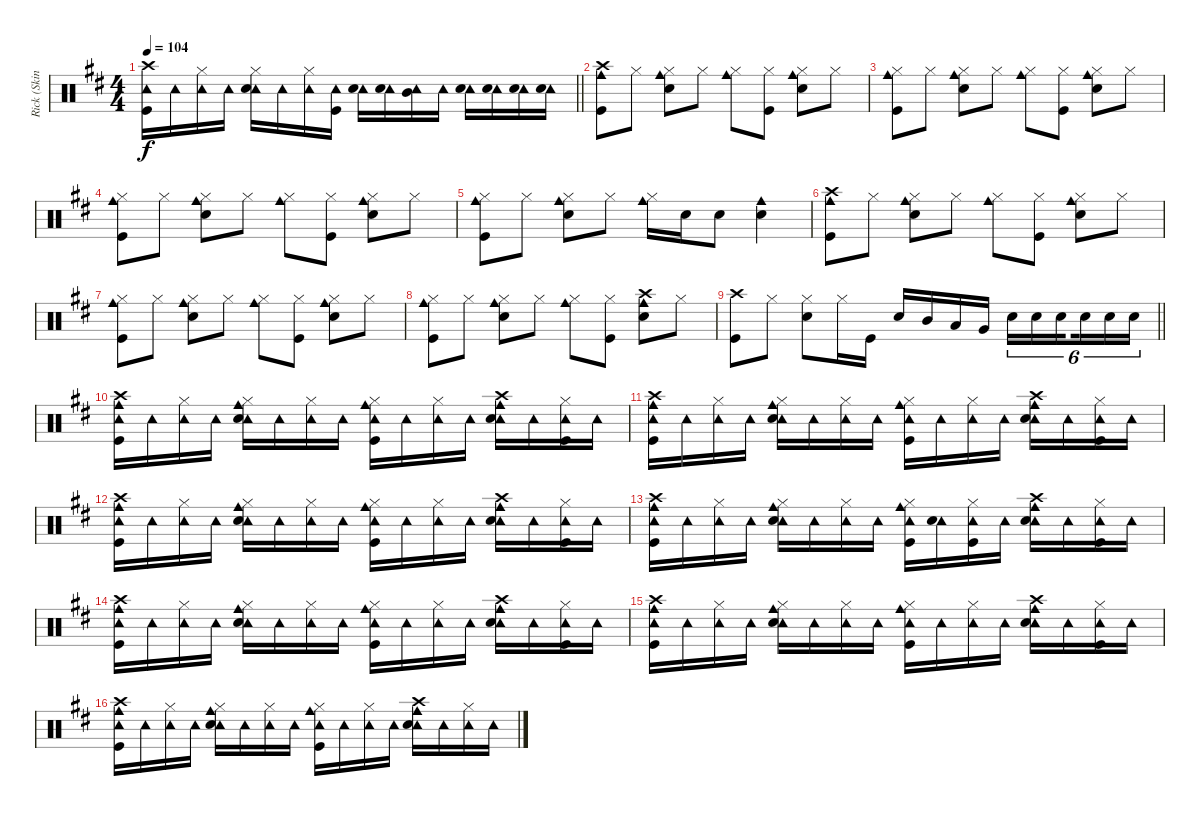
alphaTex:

\track ("Rick (Skins)" "Rick (Skin") {instrument percussion}
\staff {score}
\articulation defaults
\ts (4 4)
\tempo 104
\clef neutral
\barLineRight lightlight
\ks d
("Tambourine (hit)" "Crash high (hit)" "Kick (hit)").16{dy f} "Tambourine (hit)".16 ("Tambourine (hit)" "Hi-Hat (closed)").16 "Tambourine (hit)".16 ("Tambourine (hit)" "Hi-Hat (closed)" "Snare (hit) 2").16 "Tambourine (hit)".16 ("Tambourine (hit)" "Hi-Hat (closed)").16 ("Tambourine (hit)" "Kick (hit)").16 ("Tambourine (hit)" "Snare (hit) 2").16 ("Tambourine (hit)" "Snare (hit) 2").16 ("Tambourine (hit)" "Mid Tom (hit)").16 "Tambourine (hit)".16 ("Tambourine (hit)" "Snare (hit) 2").16 ("Tambourine (hit)" "Snare (hit) 2").16 ("Tambourine (hit)" "Snare (hit) 2").16 ("Tambourine (hit)" "Snare (hit) 2").16 |
("Cowbell medium (hit)" "Crash high (hit)" "Kick (hit)").8 "Hi-Hat (closed)".8 ("Cowbell medium (hit)" "Hi-Hat (closed)" "Snare (hit) 2").8 "Hi-Hat (closed)".8 ("Cowbell medium (hit)" "Hi-Hat (closed)").8 ("Hi-Hat (closed)" "Kick (hit)").8 ("Cowbell medium (hit)" "Hi-Hat (closed)" "Snare (hit) 2").8 "Hi-Hat (closed)".8 |
("Cowbell medium (hit)" "Hi-Hat (closed)" "Kick (hit)").8 "Hi-Hat (closed)".8 ("Cowbell medium (hit)" "Hi-Hat (closed)" "Snare (hit) 2").8 "Hi-Hat (closed)".8 ("Cowbell medium (hit)" "Hi-Hat (closed)").8 ("Hi-Hat (closed)" "Kick (hit)").8 ("Cowbell medium (hit)" "Hi-Hat (closed)" "Snare (hit) 2").8 "Hi-Hat (closed)".8 |
("Cowbell medium (hit)" "Hi-Hat (closed)" "Kick (hit)").8 "Hi-Hat (closed)".8 ("Cowbell medium (hit)" "Hi-Hat (closed)" "Snare (hit) 2").8 "Hi-Hat (closed)".8 ("Cowbell medium (hit)" "Hi-Hat (closed)").8 ("Hi-Hat (closed)" "Kick (hit)").8 ("Cowbell medium (hit)" "Hi-Hat (closed)" "Snare (hit) 2").8 "Hi-Hat (closed)".8 |
("Cowbell medium (hit)" "Hi-Hat (closed)" "Kick (hit)").8 "Hi-Hat (closed)".8 ("Cowbell medium (hit)" "Hi-Hat (closed)" "Snare (hit) 2").8 "Hi-Hat (closed)".8 ("Cowbell medium (hit)" "Hi-Hat (closed)").16 "Snare (hit) 2".16 "Snare (hit) 2".8 ("Cowbell medium (hit)" "Snare (hit) 2").4 |
("Cowbell medium (hit)" "Crash high (hit)" "Kick (hit)").8 "Hi-Hat (closed)".8 ("Cowbell medium (hit)" "Hi-Hat (closed)" "Snare (hit) 2").8 "Hi-Hat (closed)".8 ("Cowbell medium (hit)" "Hi-Hat (closed)").8 ("Hi-Hat (closed)" "Kick (hit)").8 ("Cowbell medium (hit)" "Hi-Hat (closed)" "Snare (hit) 2").8 "Hi-Hat (closed)".8 |
("Cowbell medium (hit)" "Hi-Hat (closed)" "Kick (hit)").8 "Hi-Hat (closed)".8 ("Cowbell medium (hit)" "Hi-Hat (closed)" "Snare (hit) 2").8 "Hi-Hat (closed)".8 ("Cowbell medium (hit)" "Hi-Hat (closed)").8 ("Hi-Hat (closed)" "Kick (hit)").8 ("Cowbell medium (hit)" "Hi-Hat (closed)" "Snare (hit) 2").8 "Hi-Hat (closed)".8 |
("Cowbell medium (hit)" "Hi-Hat (closed)" "Kick (hit)").8 "Hi-Hat (closed)".8 ("Cowbell medium (hit)" "Hi-Hat (closed)" "Snare (hit) 2").8 "Hi-Hat (closed)".8 ("Cowbell medium (hit)" "Hi-Hat (closed)").8 ("Hi-Hat (closed)" "Kick (hit)").8 ("Cowbell medium (hit)" "Crash high (hit)" "Snare (hit) 2").8 "Hi-Hat (closed)".8 |
\barLineRight lightlight
("Crash high (hit)" "Kick (hit)").8 "Hi-Hat (closed)".8 ("Hi-Hat (closed)" "Snare (hit) 2").8 "Hi-Hat (closed)".16 "Kick (hit)".16 "Snare (hit) 2".16 "Mid Tom (hit)".16 "Low Tom (hit)".16 "Very Low Tom (hit)".16 "Snare (hit) 2".16{tu (6 4)} "Snare (hit) 2".16{tu (6 4)} "Snare (hit) 2".16{tu (6 4) beam splitsecondary} "Snare (hit) 2".16{tu (6 4)} "Snare (hit) 2".16{tu (6 4)} "Snare (hit) 2".16{tu (6 4)} |
("Cowbell medium (hit)" "Tambourine (hit)" "Crash high (hit)" "Kick (hit)").16 "Tambourine (hit)".16 ("Tambourine (hit)" "Hi-Hat (closed)").16 "Tambourine (hit)".16 ("Cowbell medium (hit)" "Tambourine (hit)" "Hi-Hat (closed)" "Snare (hit) 2").16 "Tambourine (hit)".16 ("Tambourine (hit)" "Hi-Hat (closed)").16 "Tambourine (hit)".16 ("Cowbell medium (hit)" "Tambourine (hit)" "Hi-Hat (closed)" "Kick (hit)").16 "Tambourine (hit)".16 ("Tambourine (hit)" "Hi-Hat (closed)").16 "Tambourine (hit)".16 ("Cowbell medium (hit)" "Tambourine (hit)" "Crash high (hit)" "Snare (hit) 2").16 "Tambourine (hit)".16 ("Tambourine (hit)" "Hi-Hat (closed)" "Kick (hit)").16 "Tambourine (hit)".16 |
("Cowbell medium (hit)" "Tambourine (hit)" "Crash high (hit)" "Kick (hit)").16 "Tambourine (hit)".16 ("Tambourine (hit)" "Hi-Hat (closed)").16 "Tambourine (hit)".16 ("Cowbell medium (hit)" "Tambourine (hit)" "Hi-Hat (closed)" "Snare (hit) 2").16 "Tambourine (hit)".16 ("Tambourine (hit)" "Hi-Hat (closed)").16 "Tambourine (hit)".16 ("Cowbell medium (hit)" "Tambourine (hit)" "Hi-Hat (closed)" "Kick (hit)").16 "Tambourine (hit)".16 ("Tambourine (hit)" "Hi-Hat (closed)").16 "Tambourine (hit)".16 ("Cowbell medium (hit)" "Tambourine (hit)" "Crash high (hit)" "Snare (hit) 2").16 "Tambourine (hit)".16 ("Tambourine (hit)" "Hi-Hat (closed)" "Kick (hit)").16 "Tambourine (hit)".16 |
("Cowbell medium (hit)" "Tambourine (hit)" "Crash high (hit)" "Kick (hit)").16 "Tambourine (hit)".16 ("Tambourine (hit)" "Hi-Hat (closed)").16 "Tambourine (hit)".16 ("Cowbell medium (hit)" "Tambourine (hit)" "Hi-Hat (closed)" "Snare (hit) 2").16 "Tambourine (hit)".16 ("Tambourine (hit)" "Hi-Hat (closed)").16 "Tambourine (hit)".16 ("Cowbell medium (hit)" "Tambourine (hit)" "Hi-Hat (closed)" "Kick (hit)").16 "Tambourine (hit)".16 ("Tambourine (hit)" "Hi-Hat (closed)").16 "Tambourine (hit)".16 ("Cowbell medium (hit)" "Tambourine (hit)" "Crash high (hit)" "Snare (hit) 2").16 "Tambourine (hit)".16 ("Tambourine (hit)" "Hi-Hat (closed)" "Kick (hit)").16 "Tambourine (hit)".16 |
("Cowbell medium (hit)" "Tambourine (hit)" "Crash high (hit)" "Kick (hit)").16 "Tambourine (hit)".16 ("Tambourine (hit)" "Hi-Hat (closed)").16 "Tambourine (hit)".16 ("Cowbell medium (hit)" "Tambourine (hit)" "Hi-Hat (closed)" "Snare (hit) 2").16 "Tambourine (hit)".16 ("Tambourine (hit)" "Hi-Hat (closed)").16 "Tambourine (hit)".16 ("Cowbell medium (hit)" "Tambourine (hit)" "Hi-Hat (closed)" "Kick (hit)").16 ("Tambourine (hit)" "Snare (hit) 2").16 ("Tambourine (hit)" "Hi-Hat (closed)" "Kick (hit)").16 "Tambourine (hit)".16 ("Cowbell medium (hit)" "Tambourine (hit)" "Crash high (hit)" "Snare (hit) 2").16 "Tambourine (hit)".16 ("Tambourine (hit)" "Hi-Hat (closed)" "Kick (hit)").16 "Tambourine (hit)".16 |
("Cowbell medium (hit)" "Tambourine (hit)" "Crash high (hit)" "Kick (hit)").16 "Tambourine (hit)".16 ("Tambourine (hit)" "Hi-Hat (closed)").16 "Tambourine (hit)".16 ("Cowbell medium (hit)" "Tambourine (hit)" "Hi-Hat (closed)" "Snare (hit) 2").16 "Tambourine (hit)".16 ("Tambourine (hit)" "Hi-Hat (closed)").16 "Tambourine (hit)".16 ("Cowbell medium (hit)" "Tambourine (hit)" "Hi-Hat (closed)" "Kick (hit)").16 "Tambourine (hit)".16 ("Tambourine (hit)" "Hi-Hat (closed)").16 "Tambourine (hit)".16 ("Cowbell medium (hit)" "Tambourine (hit)" "Crash high (hit)" "Snare (hit) 2").16 "Tambourine (hit)".16 ("Tambourine (hit)" "Hi-Hat (closed)" "Kick (hit)").16 "Tambourine (hit)".16 |
("Cowbell medium (hit)" "Tambourine (hit)" "Crash high (hit)" "Kick (hit)").16 "Tambourine (hit)".16 ("Tambourine (hit)" "Hi-Hat (closed)").16 "Tambourine (hit)".16 ("Cowbell medium (hit)" "Tambourine (hit)" "Hi-Hat (closed)" "Snare (hit) 2").16 "Tambourine (hit)".16 ("Tambourine (hit)" "Hi-Hat (closed)").16 "Tambourine (hit)".16 ("Cowbell medium (hit)" "Tambourine (hit)" "Hi-Hat (closed)" "Kick (hit)").16 "Tambourine (hit)".16 ("Tambourine (hit)" "Hi-Hat (closed)").16 "Tambourine (hit)".16 ("Cowbell medium (hit)" "Tambourine (hit)" "Crash high (hit)" "Snare (hit) 2").16 "Tambourine (hit)".16 ("Tambourine (hit)" "Hi-Hat (closed)" "Kick (hit)").16 "Tambourine (hit)".16 |
("Cowbell medium (hit)" "Tambourine (hit)" "Crash high (hit)" "Kick (hit)").16 "Tambourine (hit)".16 ("Tambourine (hit)" "Hi-Hat (closed)").16 "Tambourine (hit)".16 ("Cowbell medium (hit)" "Tambourine (hit)" "Hi-Hat (closed)" "Snare (hit) 2").16 "Tambourine (hit)".16 ("Tambourine (hit)" "Hi-Hat (closed)").16 "Tambourine (hit)".16 ("Cowbell medium (hit)" "Tambourine (hit)" "Hi-Hat (closed)" "Kick (hit)").16 "Tambourine (hit)".16 ("Tambourine (hit)" "Hi-Hat (closed)").16 "Tambourine (hit)".16 ("Cowbell medium (hit)" "Tambourine (hit)" "Crash high (hit)" "Snare (hit) 2").16 "Tambourine (hit)".16 ("Tambourine (hit)" "Hi-Hat (closed)").16 "Tambourine (hit)".16
